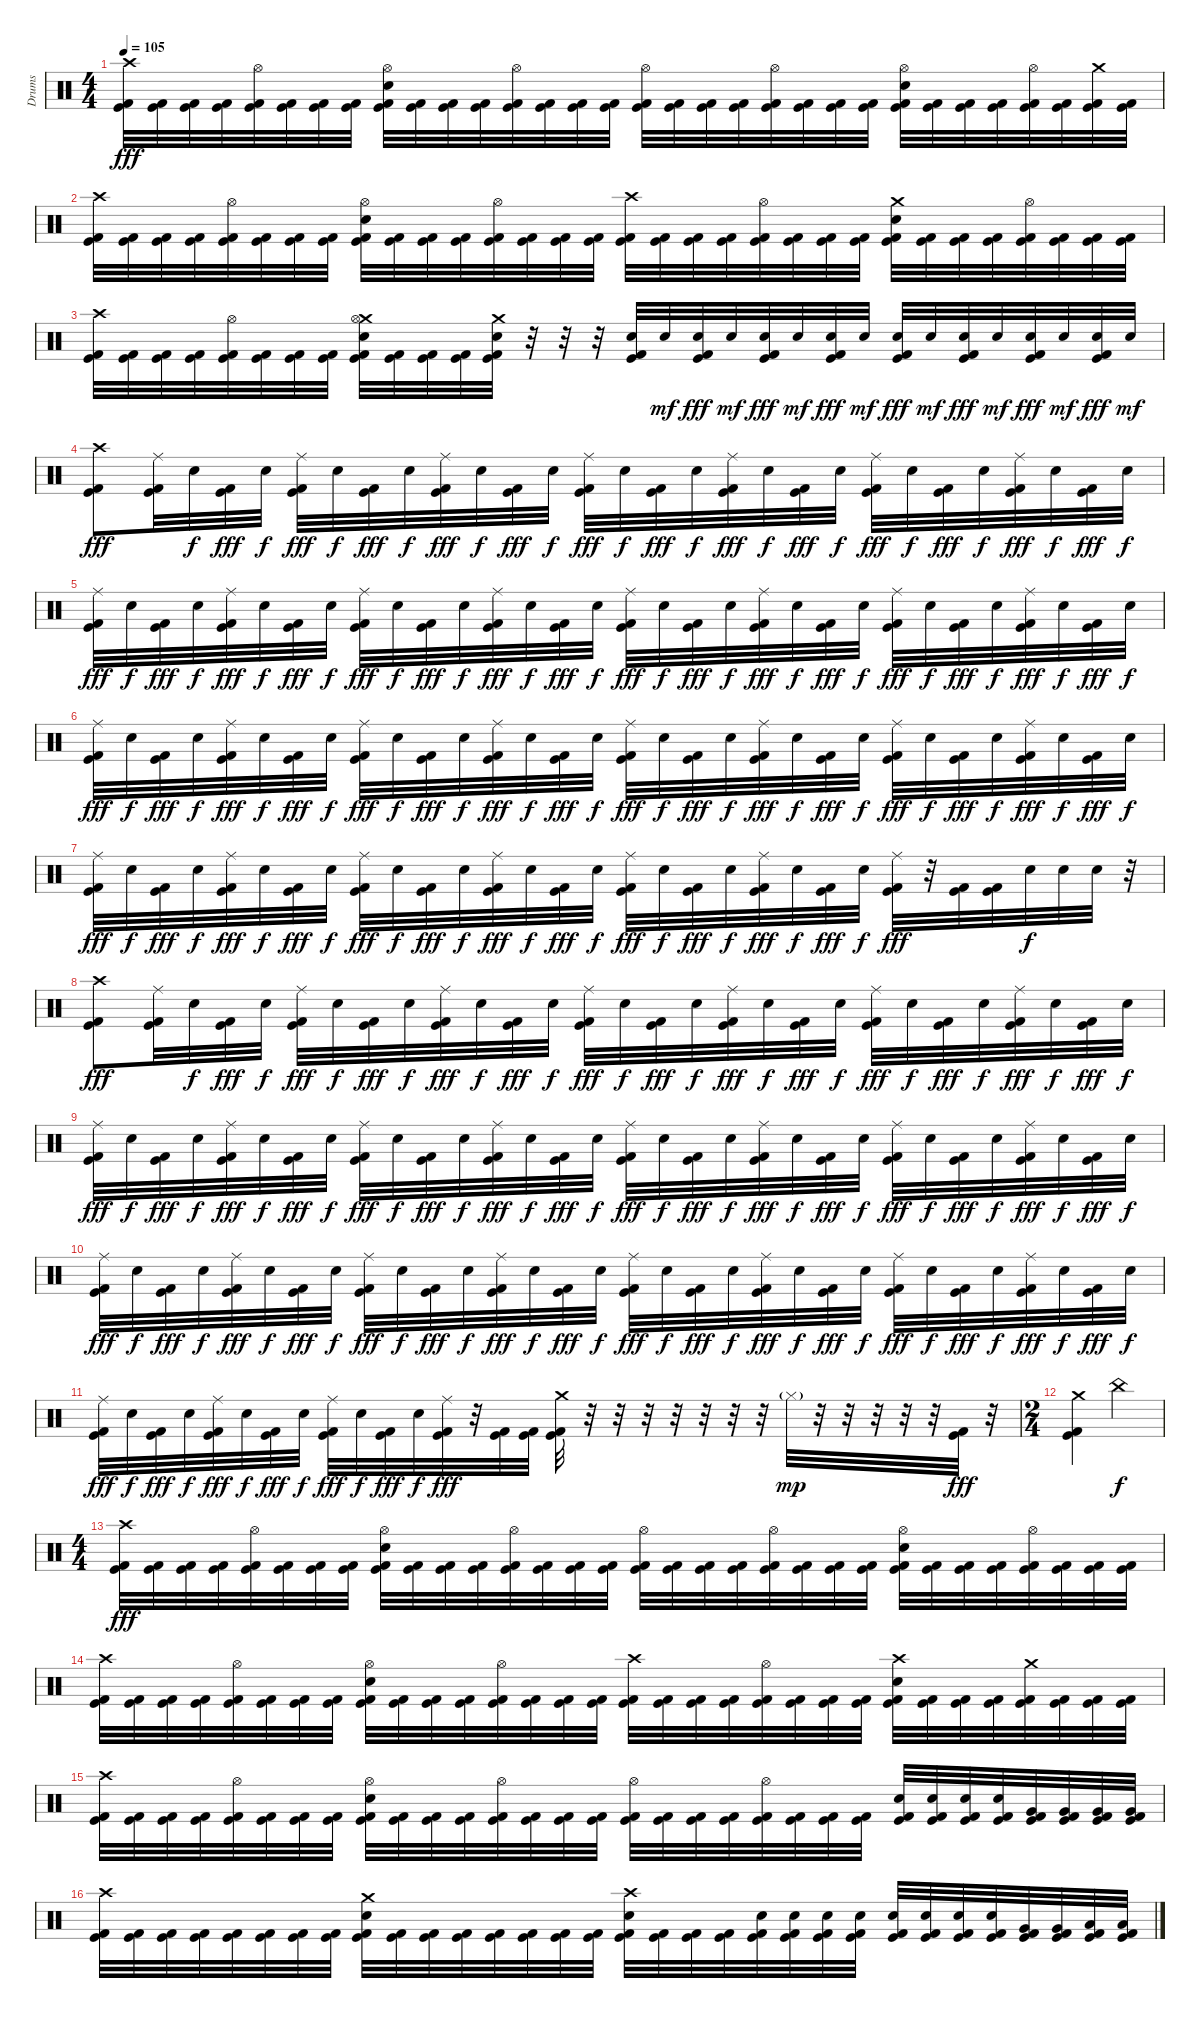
\track ("Drums" "Drums") {instrument percussion}
\staff {score}
\articulation defaults
\ts (4 4)
\tempo 105
\clef neutral
\ks c
("Crash high (hit)" "Kick (hit)" "Kick (hit) 2").32{dy fff} ("Kick (hit)" "Kick (hit) 2").32 ("Kick (hit)" "Kick (hit) 2").32 ("Kick (hit)" "Kick (hit) 2").32 ("Hi-Hat (open)" "Kick (hit)" "Kick (hit) 2").32 ("Kick (hit)" "Kick (hit) 2").32 ("Kick (hit)" "Kick (hit) 2").32 ("Kick (hit)" "Kick (hit) 2").32 ("Hi-Hat (open)" "Electric Snare (hit)" "Kick (hit)" "Kick (hit) 2").32 ("Kick (hit)" "Kick (hit) 2").32 ("Kick (hit)" "Kick (hit) 2").32 ("Kick (hit)" "Kick (hit) 2").32 ("Hi-Hat (open)" "Kick (hit)" "Kick (hit) 2").32 ("Kick (hit)" "Kick (hit) 2").32 ("Kick (hit)" "Kick (hit) 2").32 ("Kick (hit)" "Kick (hit) 2").32 ("Hi-Hat (open)" "Kick (hit)" "Kick (hit) 2").32 ("Kick (hit)" "Kick (hit) 2").32 ("Kick (hit)" "Kick (hit) 2").32 ("Kick (hit)" "Kick (hit) 2").32 ("Hi-Hat (open)" "Kick (hit)" "Kick (hit) 2").32 ("Kick (hit)" "Kick (hit) 2").32 ("Kick (hit)" "Kick (hit) 2").32 ("Kick (hit)" "Kick (hit) 2").32 ("Hi-Hat (open)" "Electric Snare (hit)" "Kick (hit)" "Kick (hit) 2").32 ("Kick (hit)" "Kick (hit) 2").32 ("Kick (hit)" "Kick (hit) 2").32 ("Kick (hit)" "Kick (hit) 2").32 ("Hi-Hat (open)" "Kick (hit)" "Kick (hit) 2").32 ("Kick (hit)" "Kick (hit) 2").32 ("Crash medium (hit)" "Kick (hit)" "Kick (hit) 2").32 ("Kick (hit)" "Kick (hit) 2").32 |
("Crash high (hit)" "Kick (hit)" "Kick (hit) 2").32 ("Kick (hit)" "Kick (hit) 2").32 ("Kick (hit)" "Kick (hit) 2").32 ("Kick (hit)" "Kick (hit) 2").32 ("Hi-Hat (open)" "Kick (hit)" "Kick (hit) 2").32 ("Kick (hit)" "Kick (hit) 2").32 ("Kick (hit)" "Kick (hit) 2").32 ("Kick (hit)" "Kick (hit) 2").32 ("Hi-Hat (open)" "Electric Snare (hit)" "Kick (hit)" "Kick (hit) 2").32 ("Kick (hit)" "Kick (hit) 2").32 ("Kick (hit)" "Kick (hit) 2").32 ("Kick (hit)" "Kick (hit) 2").32 ("Hi-Hat (open)" "Kick (hit)" "Kick (hit) 2").32 ("Kick (hit)" "Kick (hit) 2").32 ("Kick (hit)" "Kick (hit) 2").32 ("Kick (hit)" "Kick (hit) 2").32 ("Crash high (hit)" "Kick (hit)" "Kick (hit) 2").32 ("Kick (hit)" "Kick (hit) 2").32 ("Kick (hit)" "Kick (hit) 2").32 ("Kick (hit)" "Kick (hit) 2").32 ("Hi-Hat (open)" "Kick (hit)" "Kick (hit) 2").32 ("Kick (hit)" "Kick (hit) 2").32 ("Kick (hit)" "Kick (hit) 2").32 ("Kick (hit)" "Kick (hit) 2").32 ("Crash medium (hit)" "Electric Snare (hit)" "Kick (hit)" "Kick (hit) 2").32 ("Kick (hit)" "Kick (hit) 2").32 ("Kick (hit)" "Kick (hit) 2").32 ("Kick (hit)" "Kick (hit) 2").32 ("Hi-Hat (open)" "Kick (hit)" "Kick (hit) 2").32 ("Kick (hit)" "Kick (hit) 2").32 ("Kick (hit)" "Kick (hit) 2").32 ("Kick (hit)" "Kick (hit) 2").32 |
("Crash high (hit)" "Kick (hit)" "Kick (hit) 2").32 ("Kick (hit)" "Kick (hit) 2").32 ("Kick (hit)" "Kick (hit) 2").32 ("Kick (hit)" "Kick (hit) 2").32 ("Hi-Hat (open)" "Kick (hit)" "Kick (hit) 2").32 ("Kick (hit)" "Kick (hit) 2").32 ("Kick (hit)" "Kick (hit) 2").32 ("Kick (hit)" "Kick (hit) 2").32 ("Crash medium (hit)" "Hi-Hat (open)" "Electric Snare (hit)" "Kick (hit)" "Kick (hit) 2").32 ("Kick (hit)" "Kick (hit) 2").32 ("Kick (hit)" "Kick (hit) 2").32 ("Kick (hit)" "Kick (hit) 2").32 ("Crash medium (hit)" "Electric Snare (hit)" "Kick (hit)" "Kick (hit) 2").32 r.32 r.32 r.32 ("Electric Snare (hit)" "Kick (hit)" "Kick (hit) 2").32 "Electric Snare (hit)".32{dy mf} ("Electric Snare (hit)" "Kick (hit)" "Kick (hit) 2").32{dy fff} "Electric Snare (hit)".32{dy mf} ("Electric Snare (hit)" "Kick (hit)" "Kick (hit) 2").32{dy fff} "Electric Snare (hit)".32{dy mf} ("Electric Snare (hit)" "Kick (hit)" "Kick (hit) 2").32{dy fff} "Electric Snare (hit)".32{dy mf} ("Electric Snare (hit)" "Kick (hit)" "Kick (hit) 2").32{dy fff} "Electric Snare (hit)".32{dy mf} ("Electric Snare (hit)" "Kick (hit)" "Kick (hit) 2").32{dy fff} "Electric Snare (hit)".32{dy mf} ("Electric Snare (hit)" "Kick (hit)" "Kick (hit) 2").32{dy fff} "Electric Snare (hit)".32{dy mf} ("Electric Snare (hit)" "Kick (hit)" "Kick (hit) 2").32{dy fff} "Electric Snare (hit)".32{dy mf} |
("Crash high (hit)" "Kick (hit)" "Kick (hit) 2").8{dy fff} ("Ride (middle)" "Kick (hit)" "Kick (hit) 2").32 "Electric Snare (hit)".32{dy f} ("Kick (hit)" "Kick (hit) 2").32{dy fff} "Electric Snare (hit)".32{dy f} ("Ride (middle)" "Kick (hit)" "Kick (hit) 2").32{dy fff} "Electric Snare (hit)".32{dy f} ("Kick (hit)" "Kick (hit) 2").32{dy fff} "Electric Snare (hit)".32{dy f} ("Ride (middle)" "Kick (hit)" "Kick (hit) 2").32{dy fff} "Electric Snare (hit)".32{dy f} ("Kick (hit)" "Kick (hit) 2").32{dy fff} "Electric Snare (hit)".32{dy f} ("Ride (middle)" "Kick (hit)" "Kick (hit) 2").32{dy fff} "Electric Snare (hit)".32{dy f} ("Kick (hit)" "Kick (hit) 2").32{dy fff} "Electric Snare (hit)".32{dy f} ("Ride (middle)" "Kick (hit)" "Kick (hit) 2").32{dy fff} "Electric Snare (hit)".32{dy f} ("Kick (hit)" "Kick (hit) 2").32{dy fff} "Electric Snare (hit)".32{dy f} ("Ride (middle)" "Kick (hit)" "Kick (hit) 2").32{dy fff} "Electric Snare (hit)".32{dy f} ("Kick (hit)" "Kick (hit) 2").32{dy fff} "Electric Snare (hit)".32{dy f} ("Ride (middle)" "Kick (hit)" "Kick (hit) 2").32{dy fff} "Electric Snare (hit)".32{dy f} ("Kick (hit)" "Kick (hit) 2").32{dy fff} "Electric Snare (hit)".32{dy f} |
("Ride (middle)" "Kick (hit)" "Kick (hit) 2").32{dy fff} "Electric Snare (hit)".32{dy f} ("Kick (hit)" "Kick (hit) 2").32{dy fff} "Electric Snare (hit)".32{dy f} ("Ride (middle)" "Kick (hit)" "Kick (hit) 2").32{dy fff} "Electric Snare (hit)".32{dy f} ("Kick (hit)" "Kick (hit) 2").32{dy fff} "Electric Snare (hit)".32{dy f} ("Ride (middle)" "Kick (hit)" "Kick (hit) 2").32{dy fff} "Electric Snare (hit)".32{dy f} ("Kick (hit)" "Kick (hit) 2").32{dy fff} "Electric Snare (hit)".32{dy f} ("Ride (middle)" "Kick (hit)" "Kick (hit) 2").32{dy fff} "Electric Snare (hit)".32{dy f} ("Kick (hit)" "Kick (hit) 2").32{dy fff} "Electric Snare (hit)".32{dy f} ("Ride (middle)" "Kick (hit)" "Kick (hit) 2").32{dy fff} "Electric Snare (hit)".32{dy f} ("Kick (hit)" "Kick (hit) 2").32{dy fff} "Electric Snare (hit)".32{dy f} ("Ride (middle)" "Kick (hit)" "Kick (hit) 2").32{dy fff} "Electric Snare (hit)".32{dy f} ("Kick (hit)" "Kick (hit) 2").32{dy fff} "Electric Snare (hit)".32{dy f} ("Ride (middle)" "Kick (hit)" "Kick (hit) 2").32{dy fff} "Electric Snare (hit)".32{dy f} ("Kick (hit)" "Kick (hit) 2").32{dy fff} "Electric Snare (hit)".32{dy f} ("Ride (middle)" "Kick (hit)" "Kick (hit) 2").32{dy fff} "Electric Snare (hit)".32{dy f} ("Kick (hit)" "Kick (hit) 2").32{dy fff} "Electric Snare (hit)".32{dy f} |
("Ride (middle)" "Kick (hit)" "Kick (hit) 2").32{dy fff} "Electric Snare (hit)".32{dy f} ("Kick (hit)" "Kick (hit) 2").32{dy fff} "Electric Snare (hit)".32{dy f} ("Ride (middle)" "Kick (hit)" "Kick (hit) 2").32{dy fff} "Electric Snare (hit)".32{dy f} ("Kick (hit)" "Kick (hit) 2").32{dy fff} "Electric Snare (hit)".32{dy f} ("Ride (middle)" "Kick (hit)" "Kick (hit) 2").32{dy fff} "Electric Snare (hit)".32{dy f} ("Kick (hit)" "Kick (hit) 2").32{dy fff} "Electric Snare (hit)".32{dy f} ("Ride (middle)" "Kick (hit)" "Kick (hit) 2").32{dy fff} "Electric Snare (hit)".32{dy f} ("Kick (hit)" "Kick (hit) 2").32{dy fff} "Electric Snare (hit)".32{dy f} ("Ride (middle)" "Kick (hit)" "Kick (hit) 2").32{dy fff} "Electric Snare (hit)".32{dy f} ("Kick (hit)" "Kick (hit) 2").32{dy fff} "Electric Snare (hit)".32{dy f} ("Ride (middle)" "Kick (hit)" "Kick (hit) 2").32{dy fff} "Electric Snare (hit)".32{dy f} ("Kick (hit)" "Kick (hit) 2").32{dy fff} "Electric Snare (hit)".32{dy f} ("Ride (middle)" "Kick (hit)" "Kick (hit) 2").32{dy fff} "Electric Snare (hit)".32{dy f} ("Kick (hit)" "Kick (hit) 2").32{dy fff} "Electric Snare (hit)".32{dy f} ("Ride (middle)" "Kick (hit)" "Kick (hit) 2").32{dy fff} "Electric Snare (hit)".32{dy f} ("Kick (hit)" "Kick (hit) 2").32{dy fff} "Electric Snare (hit)".32{dy f} |
("Ride (middle)" "Kick (hit)" "Kick (hit) 2").32{dy fff} "Electric Snare (hit)".32{dy f} ("Kick (hit)" "Kick (hit) 2").32{dy fff} "Electric Snare (hit)".32{dy f} ("Ride (middle)" "Kick (hit)" "Kick (hit) 2").32{dy fff} "Electric Snare (hit)".32{dy f} ("Kick (hit)" "Kick (hit) 2").32{dy fff} "Electric Snare (hit)".32{dy f} ("Ride (middle)" "Kick (hit)" "Kick (hit) 2").32{dy fff} "Electric Snare (hit)".32{dy f} ("Kick (hit)" "Kick (hit) 2").32{dy fff} "Electric Snare (hit)".32{dy f} ("Ride (middle)" "Kick (hit)" "Kick (hit) 2").32{dy fff} "Electric Snare (hit)".32{dy f} ("Kick (hit)" "Kick (hit) 2").32{dy fff} "Electric Snare (hit)".32{dy f} ("Ride (middle)" "Kick (hit)" "Kick (hit) 2").32{dy fff} "Electric Snare (hit)".32{dy f} ("Kick (hit)" "Kick (hit) 2").32{dy fff} "Electric Snare (hit)".32{dy f} ("Ride (middle)" "Kick (hit)" "Kick (hit) 2").32{dy fff} "Electric Snare (hit)".32{dy f} ("Kick (hit)" "Kick (hit) 2").32{dy fff} "Electric Snare (hit)".32{dy f} ("Ride (middle)" "Kick (hit)" "Kick (hit) 2").32{dy fff} r.32 ("Kick (hit)" "Kick (hit) 2").32 ("Kick (hit)" "Kick (hit) 2").32 "Electric Snare (hit)".32{dy f} "Electric Snare (hit)".32 "Electric Snare (hit)".32 r.32 |
("Crash high (hit)" "Kick (hit)" "Kick (hit) 2").8{dy fff} ("Ride (middle)" "Kick (hit)" "Kick (hit) 2").32 "Electric Snare (hit)".32{dy f} ("Kick (hit)" "Kick (hit) 2").32{dy fff} "Electric Snare (hit)".32{dy f} ("Ride (middle)" "Kick (hit)" "Kick (hit) 2").32{dy fff} "Electric Snare (hit)".32{dy f} ("Kick (hit)" "Kick (hit) 2").32{dy fff} "Electric Snare (hit)".32{dy f} ("Ride (middle)" "Kick (hit)" "Kick (hit) 2").32{dy fff} "Electric Snare (hit)".32{dy f} ("Kick (hit)" "Kick (hit) 2").32{dy fff} "Electric Snare (hit)".32{dy f} ("Ride (middle)" "Kick (hit)" "Kick (hit) 2").32{dy fff} "Electric Snare (hit)".32{dy f} ("Kick (hit)" "Kick (hit) 2").32{dy fff} "Electric Snare (hit)".32{dy f} ("Ride (middle)" "Kick (hit)" "Kick (hit) 2").32{dy fff} "Electric Snare (hit)".32{dy f} ("Kick (hit)" "Kick (hit) 2").32{dy fff} "Electric Snare (hit)".32{dy f} ("Ride (middle)" "Kick (hit)" "Kick (hit) 2").32{dy fff} "Electric Snare (hit)".32{dy f} ("Kick (hit)" "Kick (hit) 2").32{dy fff} "Electric Snare (hit)".32{dy f} ("Ride (middle)" "Kick (hit)" "Kick (hit) 2").32{dy fff} "Electric Snare (hit)".32{dy f} ("Kick (hit)" "Kick (hit) 2").32{dy fff} "Electric Snare (hit)".32{dy f} |
("Ride (middle)" "Kick (hit)" "Kick (hit) 2").32{dy fff} "Electric Snare (hit)".32{dy f} ("Kick (hit)" "Kick (hit) 2").32{dy fff} "Electric Snare (hit)".32{dy f} ("Ride (middle)" "Kick (hit)" "Kick (hit) 2").32{dy fff} "Electric Snare (hit)".32{dy f} ("Kick (hit)" "Kick (hit) 2").32{dy fff} "Electric Snare (hit)".32{dy f} ("Ride (middle)" "Kick (hit)" "Kick (hit) 2").32{dy fff} "Electric Snare (hit)".32{dy f} ("Kick (hit)" "Kick (hit) 2").32{dy fff} "Electric Snare (hit)".32{dy f} ("Ride (middle)" "Kick (hit)" "Kick (hit) 2").32{dy fff} "Electric Snare (hit)".32{dy f} ("Kick (hit)" "Kick (hit) 2").32{dy fff} "Electric Snare (hit)".32{dy f} ("Ride (middle)" "Kick (hit)" "Kick (hit) 2").32{dy fff} "Electric Snare (hit)".32{dy f} ("Kick (hit)" "Kick (hit) 2").32{dy fff} "Electric Snare (hit)".32{dy f} ("Ride (middle)" "Kick (hit)" "Kick (hit) 2").32{dy fff} "Electric Snare (hit)".32{dy f} ("Kick (hit)" "Kick (hit) 2").32{dy fff} "Electric Snare (hit)".32{dy f} ("Ride (middle)" "Kick (hit)" "Kick (hit) 2").32{dy fff} "Electric Snare (hit)".32{dy f} ("Kick (hit)" "Kick (hit) 2").32{dy fff} "Electric Snare (hit)".32{dy f} ("Ride (middle)" "Kick (hit)" "Kick (hit) 2").32{dy fff} "Electric Snare (hit)".32{dy f} ("Kick (hit)" "Kick (hit) 2").32{dy fff} "Electric Snare (hit)".32{dy f} |
("Ride (middle)" "Kick (hit)" "Kick (hit) 2").32{dy fff} "Electric Snare (hit)".32{dy f} ("Kick (hit)" "Kick (hit) 2").32{dy fff} "Electric Snare (hit)".32{dy f} ("Ride (middle)" "Kick (hit)" "Kick (hit) 2").32{dy fff} "Electric Snare (hit)".32{dy f} ("Kick (hit)" "Kick (hit) 2").32{dy fff} "Electric Snare (hit)".32{dy f} ("Ride (middle)" "Kick (hit)" "Kick (hit) 2").32{dy fff} "Electric Snare (hit)".32{dy f} ("Kick (hit)" "Kick (hit) 2").32{dy fff} "Electric Snare (hit)".32{dy f} ("Ride (middle)" "Kick (hit)" "Kick (hit) 2").32{dy fff} "Electric Snare (hit)".32{dy f} ("Kick (hit)" "Kick (hit) 2").32{dy fff} "Electric Snare (hit)".32{dy f} ("Ride (middle)" "Kick (hit)" "Kick (hit) 2").32{dy fff} "Electric Snare (hit)".32{dy f} ("Kick (hit)" "Kick (hit) 2").32{dy fff} "Electric Snare (hit)".32{dy f} ("Ride (middle)" "Kick (hit)" "Kick (hit) 2").32{dy fff} "Electric Snare (hit)".32{dy f} ("Kick (hit)" "Kick (hit) 2").32{dy fff} "Electric Snare (hit)".32{dy f} ("Ride (middle)" "Kick (hit)" "Kick (hit) 2").32{dy fff} "Electric Snare (hit)".32{dy f} ("Kick (hit)" "Kick (hit) 2").32{dy fff} "Electric Snare (hit)".32{dy f} ("Ride (middle)" "Kick (hit)" "Kick (hit) 2").32{dy fff} "Electric Snare (hit)".32{dy f} ("Kick (hit)" "Kick (hit) 2").32{dy fff} "Electric Snare (hit)".32{dy f} |
("Ride (middle)" "Kick (hit)" "Kick (hit) 2").32{dy fff} "Electric Snare (hit)".32{dy f} ("Kick (hit)" "Kick (hit) 2").32{dy fff} "Electric Snare (hit)".32{dy f} ("Ride (middle)" "Kick (hit)" "Kick (hit) 2").32{dy fff} "Electric Snare (hit)".32{dy f} ("Kick (hit)" "Kick (hit) 2").32{dy fff} "Electric Snare (hit)".32{dy f} ("Ride (middle)" "Kick (hit)" "Kick (hit) 2").32{dy fff} "Electric Snare (hit)".32{dy f} ("Kick (hit)" "Kick (hit) 2").32{dy fff} "Electric Snare (hit)".32{dy f} ("Ride (middle)" "Kick (hit)" "Kick (hit) 2").32{dy fff} r.32 ("Kick (hit)" "Kick (hit) 2").32 ("Kick (hit)" "Kick (hit) 2").32 ("Crash medium (hit)" "Kick (hit)" "Kick (hit) 2").32 r.32 r.32 r.32 r.32 r.32 r.32 r.32 "Hi-Hat (closed)"{g}.32{dy mp} r.32 r.32 r.32 r.32 r.32 ("Kick (hit)" "Kick (hit) 2").32{dy fff} r.32 |
\ts (2 4)
("Crash medium (hit)" "Kick (hit)" "Kick (hit) 2").4 "China (hit)".4{dy f} |
\ts (4 4)
("Crash high (hit)" "Kick (hit)" "Kick (hit) 2").32{dy fff} ("Kick (hit)" "Kick (hit) 2").32 ("Kick (hit)" "Kick (hit) 2").32 ("Kick (hit)" "Kick (hit) 2").32 ("Hi-Hat (open)" "Kick (hit)" "Kick (hit) 2").32 ("Kick (hit)" "Kick (hit) 2").32 ("Kick (hit)" "Kick (hit) 2").32 ("Kick (hit)" "Kick (hit) 2").32 ("Hi-Hat (open)" "Electric Snare (hit)" "Kick (hit)" "Kick (hit) 2").32 ("Kick (hit)" "Kick (hit) 2").32 ("Kick (hit)" "Kick (hit) 2").32 ("Kick (hit)" "Kick (hit) 2").32 ("Hi-Hat (open)" "Kick (hit)" "Kick (hit) 2").32 ("Kick (hit)" "Kick (hit) 2").32 ("Kick (hit)" "Kick (hit) 2").32 ("Kick (hit)" "Kick (hit) 2").32 ("Hi-Hat (open)" "Kick (hit)" "Kick (hit) 2").32 ("Kick (hit)" "Kick (hit) 2").32 ("Kick (hit)" "Kick (hit) 2").32 ("Kick (hit)" "Kick (hit) 2").32 ("Hi-Hat (open)" "Kick (hit)" "Kick (hit) 2").32 ("Kick (hit)" "Kick (hit) 2").32 ("Kick (hit)" "Kick (hit) 2").32 ("Kick (hit)" "Kick (hit) 2").32 ("Hi-Hat (open)" "Electric Snare (hit)" "Kick (hit)" "Kick (hit) 2").32 ("Kick (hit)" "Kick (hit) 2").32 ("Kick (hit)" "Kick (hit) 2").32 ("Kick (hit)" "Kick (hit) 2").32 ("Hi-Hat (open)" "Kick (hit)" "Kick (hit) 2").32 ("Kick (hit)" "Kick (hit) 2").32 ("Kick (hit)" "Kick (hit) 2").32 ("Kick (hit)" "Kick (hit) 2").32 |
("Crash high (hit)" "Kick (hit)" "Kick (hit) 2").32 ("Kick (hit)" "Kick (hit) 2").32 ("Kick (hit)" "Kick (hit) 2").32 ("Kick (hit)" "Kick (hit) 2").32 ("Hi-Hat (open)" "Kick (hit)" "Kick (hit) 2").32 ("Kick (hit)" "Kick (hit) 2").32 ("Kick (hit)" "Kick (hit) 2").32 ("Kick (hit)" "Kick (hit) 2").32 ("Hi-Hat (open)" "Electric Snare (hit)" "Kick (hit)" "Kick (hit) 2").32 ("Kick (hit)" "Kick (hit) 2").32 ("Kick (hit)" "Kick (hit) 2").32 ("Kick (hit)" "Kick (hit) 2").32 ("Hi-Hat (open)" "Kick (hit)" "Kick (hit) 2").32 ("Kick (hit)" "Kick (hit) 2").32 ("Kick (hit)" "Kick (hit) 2").32 ("Kick (hit)" "Kick (hit) 2").32 ("Crash high (hit)" "Kick (hit)" "Kick (hit) 2").32 ("Kick (hit)" "Kick (hit) 2").32 ("Kick (hit)" "Kick (hit) 2").32 ("Kick (hit)" "Kick (hit) 2").32 ("Hi-Hat (open)" "Kick (hit)" "Kick (hit) 2").32 ("Kick (hit)" "Kick (hit) 2").32 ("Kick (hit)" "Kick (hit) 2").32 ("Kick (hit)" "Kick (hit) 2").32 ("Crash high (hit)" "Electric Snare (hit)" "Kick (hit)" "Kick (hit) 2").32 ("Kick (hit)" "Kick (hit) 2").32 ("Kick (hit)" "Kick (hit) 2").32 ("Kick (hit)" "Kick (hit) 2").32 ("Crash medium (hit)" "Kick (hit)" "Kick (hit) 2").32 ("Kick (hit)" "Kick (hit) 2").32 ("Kick (hit)" "Kick (hit) 2").32 ("Kick (hit)" "Kick (hit) 2").32 |
("Crash high (hit)" "Kick (hit)" "Kick (hit) 2").32 ("Kick (hit)" "Kick (hit) 2").32 ("Kick (hit)" "Kick (hit) 2").32 ("Kick (hit)" "Kick (hit) 2").32 ("Hi-Hat (open)" "Kick (hit)" "Kick (hit) 2").32 ("Kick (hit)" "Kick (hit) 2").32 ("Kick (hit)" "Kick (hit) 2").32 ("Kick (hit)" "Kick (hit) 2").32 ("Hi-Hat (open)" "Electric Snare (hit)" "Kick (hit)" "Kick (hit) 2").32 ("Kick (hit)" "Kick (hit) 2").32 ("Kick (hit)" "Kick (hit) 2").32 ("Kick (hit)" "Kick (hit) 2").32 ("Hi-Hat (open)" "Kick (hit)" "Kick (hit) 2").32 ("Kick (hit)" "Kick (hit) 2").32 ("Kick (hit)" "Kick (hit) 2").32 ("Kick (hit)" "Kick (hit) 2").32 ("Hi-Hat (open)" "Kick (hit)" "Kick (hit) 2").32 ("Kick (hit)" "Kick (hit) 2").32 ("Kick (hit)" "Kick (hit) 2").32 ("Kick (hit)" "Kick (hit) 2").32 ("Hi-Hat (open)" "Kick (hit)" "Kick (hit) 2").32 ("Kick (hit)" "Kick (hit) 2").32 ("Kick (hit)" "Kick (hit) 2").32 ("Kick (hit)" "Kick (hit) 2").32 ("Electric Snare (hit)" "Kick (hit)" "Kick (hit) 2").32 ("Electric Snare (hit)" "Kick (hit)" "Kick (hit) 2").32 ("Electric Snare (hit)" "Kick (hit)" "Kick (hit) 2").32 ("Electric Snare (hit)" "Kick (hit)" "Kick (hit) 2").32 ("Very Low Tom (hit)" "Kick (hit)" "Kick (hit) 2").32 ("Very Low Tom (hit)" "Kick (hit)" "Kick (hit) 2").32 ("Very Low Tom (hit)" "Kick (hit)" "Kick (hit) 2").32 ("Very Low Tom (hit)" "Kick (hit)" "Kick (hit) 2").32 |
("Crash high (hit)" "Kick (hit)" "Kick (hit) 2").32 ("Kick (hit)" "Kick (hit) 2").32 ("Kick (hit)" "Kick (hit) 2").32 ("Kick (hit)" "Kick (hit) 2").32 ("Kick (hit)" "Kick (hit) 2").32 ("Kick (hit)" "Kick (hit) 2").32 ("Kick (hit)" "Kick (hit) 2").32 ("Kick (hit)" "Kick (hit) 2").32 ("Crash medium (hit)" "Electric Snare (hit)" "Kick (hit)" "Kick (hit) 2").32 ("Kick (hit)" "Kick (hit) 2").32 ("Kick (hit)" "Kick (hit) 2").32 ("Kick (hit)" "Kick (hit) 2").32 ("Kick (hit)" "Kick (hit) 2").32 ("Kick (hit)" "Kick (hit) 2").32 ("Kick (hit)" "Kick (hit) 2").32 ("Kick (hit)" "Kick (hit) 2").32 ("Crash high (hit)" "Electric Snare (hit)" "Kick (hit)" "Kick (hit) 2").32 ("Kick (hit)" "Kick (hit) 2").32 ("Kick (hit)" "Kick (hit) 2").32 ("Kick (hit)" "Kick (hit) 2").32 ("Electric Snare (hit)" "Kick (hit)" "Kick (hit) 2").32 ("Electric Snare (hit)" "Kick (hit)" "Kick (hit) 2").32 ("Electric Snare (hit)" "Kick (hit)" "Kick (hit) 2").32 ("Electric Snare (hit)" "Kick (hit)" "Kick (hit) 2").32 ("Electric Snare (hit)" "Kick (hit)" "Kick (hit) 2").32 ("Electric Snare (hit)" "Kick (hit)" "Kick (hit) 2").32 ("Electric Snare (hit)" "Kick (hit)" "Kick (hit) 2").32 ("Electric Snare (hit)" "Kick (hit)" "Kick (hit) 2").32 ("Very Low Tom (hit)" "Kick (hit)" "Kick (hit) 2").32 ("Very Low Tom (hit)" "Kick (hit)" "Kick (hit) 2").32 ("Low Floor Tom (hit)" "Kick (hit)" "Kick (hit) 2").32 ("Low Floor Tom (hit)" "Kick (hit)" "Kick (hit) 2").32
